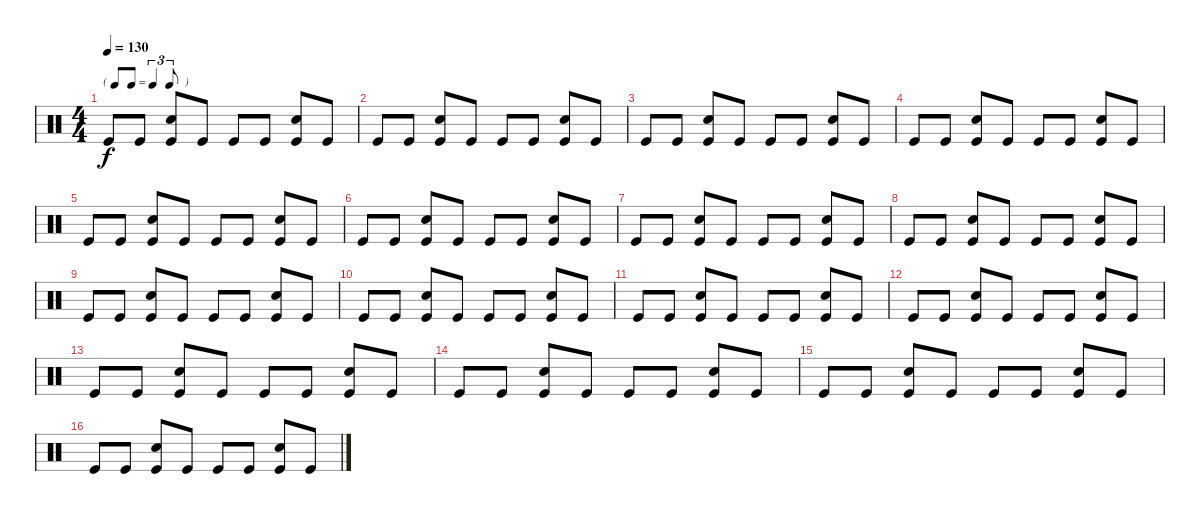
\track "" {instrument percussion}
\staff {score}
\articulation defaults
\ts (4 4)
\tf triplet8th
\tempo 130
\clef neutral
\ks c "Kick (hit)".8{dy f} "Kick (hit)".8
("Snare (hit) 2" "Kick (hit)").8 "Kick (hit)".8 "Kick (hit)".8 "Kick (hit)".8 ("Snare (hit) 2" "Kick (hit)").8 "Kick (hit)".8 |
"Kick (hit)".8 "Kick (hit)".8 ("Snare (hit) 2" "Kick (hit)").8 "Kick (hit)".8 "Kick (hit)".8 "Kick (hit)".8 ("Snare (hit) 2" "Kick (hit)").8 "Kick (hit)".8 |
"Kick (hit)".8 "Kick (hit)".8 ("Snare (hit) 2" "Kick (hit)").8 "Kick (hit)".8 "Kick (hit)".8 "Kick (hit)".8 ("Snare (hit) 2" "Kick (hit)").8 "Kick (hit)".8 |
"Kick (hit)".8 "Kick (hit)".8 ("Snare (hit) 2" "Kick (hit)").8 "Kick (hit)".8 "Kick (hit)".8 "Kick (hit)".8 ("Snare (hit) 2" "Kick (hit)").8 "Kick (hit)".8 |
"Kick (hit)".8 "Kick (hit)".8 ("Snare (hit) 2" "Kick (hit)").8 "Kick (hit)".8 "Kick (hit)".8 "Kick (hit)".8 ("Snare (hit) 2" "Kick (hit)").8 "Kick (hit)".8 |
"Kick (hit)".8 "Kick (hit)".8 ("Snare (hit) 2" "Kick (hit)").8 "Kick (hit)".8 "Kick (hit)".8 "Kick (hit)".8 ("Snare (hit) 2" "Kick (hit)").8 "Kick (hit)".8 |
"Kick (hit)".8 "Kick (hit)".8 ("Snare (hit) 2" "Kick (hit)").8 "Kick (hit)".8 "Kick (hit)".8 "Kick (hit)".8 ("Snare (hit) 2" "Kick (hit)").8 "Kick (hit)".8 |
"Kick (hit)".8 "Kick (hit)".8 ("Snare (hit) 2" "Kick (hit)").8 "Kick (hit)".8 "Kick (hit)".8 "Kick (hit)".8 ("Snare (hit) 2" "Kick (hit)").8 "Kick (hit)".8 |
"Kick (hit)".8 "Kick (hit)".8 ("Snare (hit) 2" "Kick (hit)").8 "Kick (hit)".8 "Kick (hit)".8 "Kick (hit)".8 ("Snare (hit) 2" "Kick (hit)").8 "Kick (hit)".8 |
"Kick (hit)".8 "Kick (hit)".8 ("Snare (hit) 2" "Kick (hit)").8 "Kick (hit)".8 "Kick (hit)".8 "Kick (hit)".8 ("Snare (hit) 2" "Kick (hit)").8 "Kick (hit)".8 |
"Kick (hit)".8 "Kick (hit)".8 ("Snare (hit) 2" "Kick (hit)").8 "Kick (hit)".8 "Kick (hit)".8 "Kick (hit)".8 ("Snare (hit) 2" "Kick (hit)").8 "Kick (hit)".8 |
"Kick (hit)".8 "Kick (hit)".8 ("Snare (hit) 2" "Kick (hit)").8 "Kick (hit)".8 "Kick (hit)".8 "Kick (hit)".8 ("Snare (hit) 2" "Kick (hit)").8 "Kick (hit)".8 |
"Kick (hit)".8 "Kick (hit)".8 ("Snare (hit) 2" "Kick (hit)").8 "Kick (hit)".8 "Kick (hit)".8 "Kick (hit)".8 ("Snare (hit) 2" "Kick (hit)").8 "Kick (hit)".8 |
"Kick (hit)".8 "Kick (hit)".8 ("Snare (hit) 2" "Kick (hit)").8 "Kick (hit)".8 "Kick (hit)".8 "Kick (hit)".8 ("Snare (hit) 2" "Kick (hit)").8 "Kick (hit)".8 |
"Kick (hit)".8 "Kick (hit)".8 ("Snare (hit) 2" "Kick (hit)").8 "Kick (hit)".8 "Kick (hit)".8 "Kick (hit)".8 ("Snare (hit) 2" "Kick (hit)").8 "Kick (hit)".8 |
"Kick (hit)".8 "Kick (hit)".8 ("Snare (hit) 2" "Kick (hit)").8 "Kick (hit)".8 "Kick (hit)".8 "Kick (hit)".8 ("Snare (hit) 2" "Kick (hit)").8 "Kick (hit)".8
